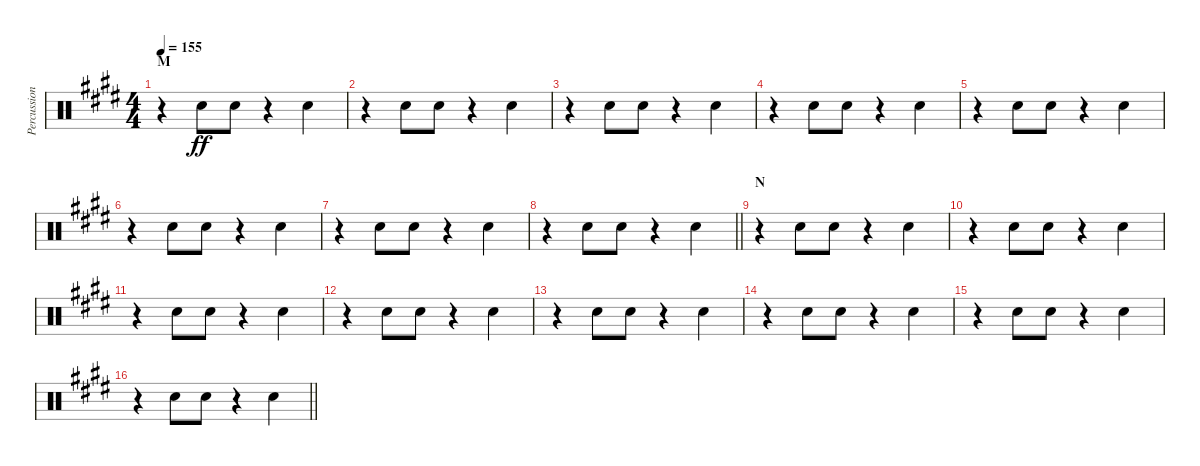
\track ("Percussion" "Percussion") {instrument percussion}
\staff {score}
\articulation defaults
\ts (4 4)
\section ("" "M")
\tempo 155
\clef neutral
\ks e
r.4{dy ff} "Hand Clap (hit)".8 "Hand Clap (hit)".8 r.4 "Hand Clap (hit)".4 |
r.4 "Hand Clap (hit)".8 "Hand Clap (hit)".8 r.4 "Hand Clap (hit)".4 |
r.4 "Hand Clap (hit)".8 "Hand Clap (hit)".8 r.4 "Hand Clap (hit)".4 |
r.4 "Hand Clap (hit)".8 "Hand Clap (hit)".8 r.4 "Hand Clap (hit)".4 |
r.4 "Hand Clap (hit)".8 "Hand Clap (hit)".8 r.4 "Hand Clap (hit)".4 |
r.4 "Hand Clap (hit)".8 "Hand Clap (hit)".8 r.4 "Hand Clap (hit)".4 |
r.4 "Hand Clap (hit)".8 "Hand Clap (hit)".8 r.4 "Hand Clap (hit)".4 |
\barLineRight lightlight
r.4 "Hand Clap (hit)".8 "Hand Clap (hit)".8 r.4 "Hand Clap (hit)".4 |
\section ("" "N")
r.4 "Hand Clap (hit)".8 "Hand Clap (hit)".8 r.4 "Hand Clap (hit)".4 |
r.4 "Hand Clap (hit)".8 "Hand Clap (hit)".8 r.4 "Hand Clap (hit)".4 |
r.4 "Hand Clap (hit)".8 "Hand Clap (hit)".8 r.4 "Hand Clap (hit)".4 |
r.4 "Hand Clap (hit)".8 "Hand Clap (hit)".8 r.4 "Hand Clap (hit)".4 |
r.4 "Hand Clap (hit)".8 "Hand Clap (hit)".8 r.4 "Hand Clap (hit)".4 |
r.4 "Hand Clap (hit)".8 "Hand Clap (hit)".8 r.4 "Hand Clap (hit)".4 |
r.4 "Hand Clap (hit)".8 "Hand Clap (hit)".8 r.4 "Hand Clap (hit)".4 |
\barLineRight lightlight
r.4 "Hand Clap (hit)".8 "Hand Clap (hit)".8 r.4 "Hand Clap (hit)".4
